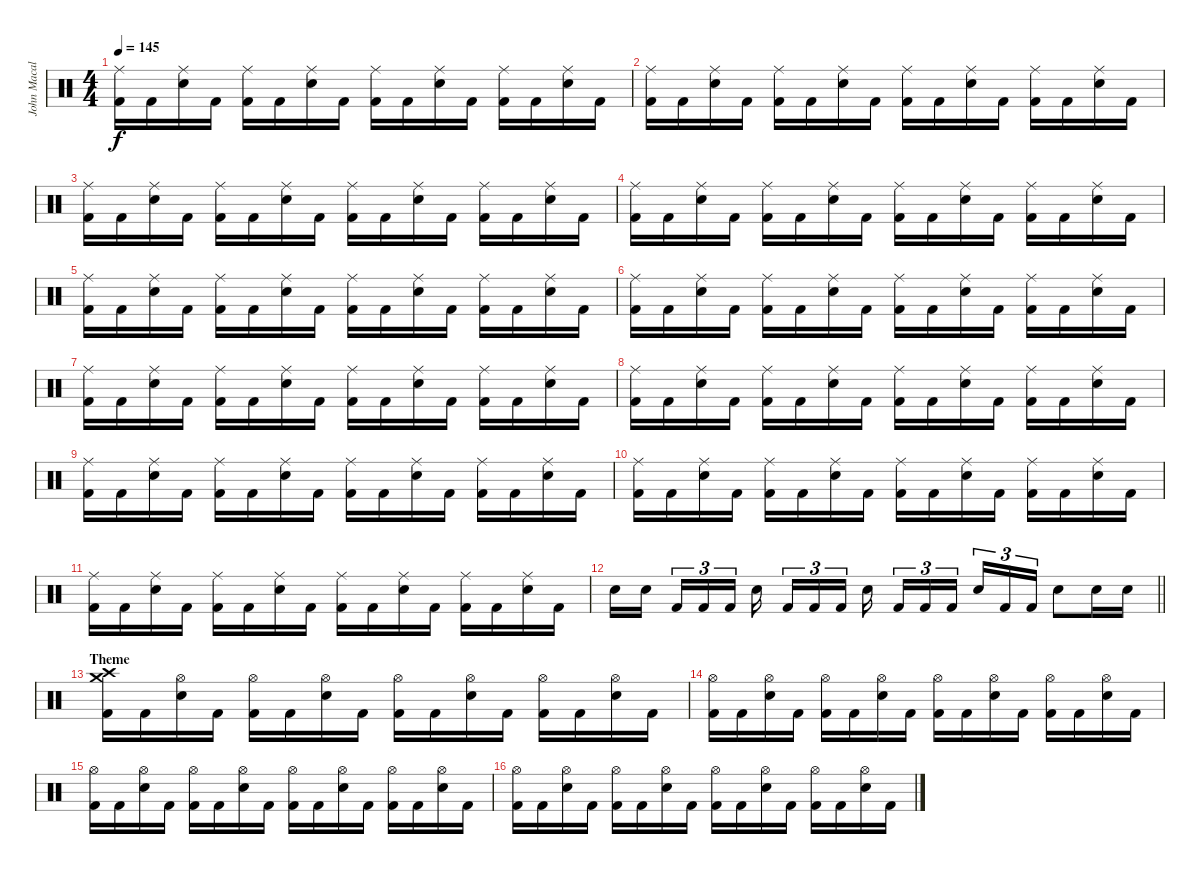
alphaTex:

\track ("John Macaluso" "John Macal") {instrument percussion}
\staff {score}
\articulation defaults
\ts (4 4)
\tempo 145
\clef neutral
\ks c
("Ride (middle)" "Kick (hit) 2").16{dy f} "Kick (hit) 2".16 ("Ride (middle)" "Snare (hit) 2").16 "Kick (hit) 2".16 ("Ride (middle)" "Kick (hit) 2").16 "Kick (hit) 2".16 ("Ride (middle)" "Snare (hit) 2").16 "Kick (hit) 2".16 ("Ride (middle)" "Kick (hit) 2").16 "Kick (hit) 2".16 ("Ride (middle)" "Snare (hit) 2").16 "Kick (hit) 2".16 ("Ride (middle)" "Kick (hit) 2").16 "Kick (hit) 2".16 ("Ride (middle)" "Snare (hit) 2").16 "Kick (hit) 2".16 |
("Ride (middle)" "Kick (hit) 2").16 "Kick (hit) 2".16 ("Ride (middle)" "Snare (hit) 2").16 "Kick (hit) 2".16 ("Ride (middle)" "Kick (hit) 2").16 "Kick (hit) 2".16 ("Ride (middle)" "Snare (hit) 2").16 "Kick (hit) 2".16 ("Ride (middle)" "Kick (hit) 2").16 "Kick (hit) 2".16 ("Ride (middle)" "Snare (hit) 2").16 "Kick (hit) 2".16 ("Ride (middle)" "Kick (hit) 2").16 "Kick (hit) 2".16 ("Ride (middle)" "Snare (hit) 2").16 "Kick (hit) 2".16 |
("Ride (middle)" "Kick (hit) 2").16 "Kick (hit) 2".16 ("Ride (middle)" "Snare (hit) 2").16 "Kick (hit) 2".16 ("Ride (middle)" "Kick (hit) 2").16 "Kick (hit) 2".16 ("Ride (middle)" "Snare (hit) 2").16 "Kick (hit) 2".16 ("Ride (middle)" "Kick (hit) 2").16 "Kick (hit) 2".16 ("Ride (middle)" "Snare (hit) 2").16 "Kick (hit) 2".16 ("Ride (middle)" "Kick (hit) 2").16 "Kick (hit) 2".16 ("Ride (middle)" "Snare (hit) 2").16 "Kick (hit) 2".16 |
("Ride (middle)" "Kick (hit) 2").16 "Kick (hit) 2".16 ("Ride (middle)" "Snare (hit) 2").16 "Kick (hit) 2".16 ("Ride (middle)" "Kick (hit) 2").16 "Kick (hit) 2".16 ("Ride (middle)" "Snare (hit) 2").16 "Kick (hit) 2".16 ("Ride (middle)" "Kick (hit) 2").16 "Kick (hit) 2".16 ("Ride (middle)" "Snare (hit) 2").16 "Kick (hit) 2".16 ("Ride (middle)" "Kick (hit) 2").16 "Kick (hit) 2".16 ("Ride (middle)" "Snare (hit) 2").16 "Kick (hit) 2".16 |
("Ride (middle)" "Kick (hit) 2").16 "Kick (hit) 2".16 ("Ride (middle)" "Snare (hit) 2").16 "Kick (hit) 2".16 ("Ride (middle)" "Kick (hit) 2").16 "Kick (hit) 2".16 ("Ride (middle)" "Snare (hit) 2").16 "Kick (hit) 2".16 ("Ride (middle)" "Kick (hit) 2").16 "Kick (hit) 2".16 ("Ride (middle)" "Snare (hit) 2").16 "Kick (hit) 2".16 ("Ride (middle)" "Kick (hit) 2").16 "Kick (hit) 2".16 ("Ride (middle)" "Snare (hit) 2").16 "Kick (hit) 2".16 |
("Ride (middle)" "Kick (hit) 2").16 "Kick (hit) 2".16 ("Ride (middle)" "Snare (hit) 2").16 "Kick (hit) 2".16 ("Ride (middle)" "Kick (hit) 2").16 "Kick (hit) 2".16 ("Ride (middle)" "Snare (hit) 2").16 "Kick (hit) 2".16 ("Ride (middle)" "Kick (hit) 2").16 "Kick (hit) 2".16 ("Ride (middle)" "Snare (hit) 2").16 "Kick (hit) 2".16 ("Ride (middle)" "Kick (hit) 2").16 "Kick (hit) 2".16 ("Ride (middle)" "Snare (hit) 2").16 "Kick (hit) 2".16 |
("Ride (middle)" "Kick (hit) 2").16 "Kick (hit) 2".16 ("Ride (middle)" "Snare (hit) 2").16 "Kick (hit) 2".16 ("Ride (middle)" "Kick (hit) 2").16 "Kick (hit) 2".16 ("Ride (middle)" "Snare (hit) 2").16 "Kick (hit) 2".16 ("Ride (middle)" "Kick (hit) 2").16 "Kick (hit) 2".16 ("Ride (middle)" "Snare (hit) 2").16 "Kick (hit) 2".16 ("Ride (middle)" "Kick (hit) 2").16 "Kick (hit) 2".16 ("Ride (middle)" "Snare (hit) 2").16 "Kick (hit) 2".16 |
("Ride (middle)" "Kick (hit) 2").16 "Kick (hit) 2".16 ("Ride (middle)" "Snare (hit) 2").16 "Kick (hit) 2".16 ("Ride (middle)" "Kick (hit) 2").16 "Kick (hit) 2".16 ("Ride (middle)" "Snare (hit) 2").16 "Kick (hit) 2".16 ("Ride (middle)" "Kick (hit) 2").16 "Kick (hit) 2".16 ("Ride (middle)" "Snare (hit) 2").16 "Kick (hit) 2".16 ("Ride (middle)" "Kick (hit) 2").16 "Kick (hit) 2".16 ("Ride (middle)" "Snare (hit) 2").16 "Kick (hit) 2".16 |
("Ride (middle)" "Kick (hit) 2").16 "Kick (hit) 2".16 ("Ride (middle)" "Snare (hit) 2").16 "Kick (hit) 2".16 ("Ride (middle)" "Kick (hit) 2").16 "Kick (hit) 2".16 ("Ride (middle)" "Snare (hit) 2").16 "Kick (hit) 2".16 ("Ride (middle)" "Kick (hit) 2").16 "Kick (hit) 2".16 ("Ride (middle)" "Snare (hit) 2").16 "Kick (hit) 2".16 ("Ride (middle)" "Kick (hit) 2").16 "Kick (hit) 2".16 ("Ride (middle)" "Snare (hit) 2").16 "Kick (hit) 2".16 |
("Ride (middle)" "Kick (hit) 2").16 "Kick (hit) 2".16 ("Ride (middle)" "Snare (hit) 2").16 "Kick (hit) 2".16 ("Ride (middle)" "Kick (hit) 2").16 "Kick (hit) 2".16 ("Ride (middle)" "Snare (hit) 2").16 "Kick (hit) 2".16 ("Ride (middle)" "Kick (hit) 2").16 "Kick (hit) 2".16 ("Ride (middle)" "Snare (hit) 2").16 "Kick (hit) 2".16 ("Ride (middle)" "Kick (hit) 2").16 "Kick (hit) 2".16 ("Ride (middle)" "Snare (hit) 2").16 "Kick (hit) 2".16 |
("Ride (middle)" "Kick (hit) 2").16 "Kick (hit) 2".16 ("Ride (middle)" "Snare (hit) 2").16 "Kick (hit) 2".16 ("Ride (middle)" "Kick (hit) 2").16 "Kick (hit) 2".16 ("Ride (middle)" "Snare (hit) 2").16 "Kick (hit) 2".16 ("Ride (middle)" "Kick (hit) 2").16 "Kick (hit) 2".16 ("Ride (middle)" "Snare (hit) 2").16 "Kick (hit) 2".16 ("Ride (middle)" "Kick (hit) 2").16 "Kick (hit) 2".16 ("Ride (middle)" "Snare (hit) 2").16 "Kick (hit) 2".16 |
\barLineRight lightlight "Snare (hit) 2".16 "Snare (hit) 2".16{beam splitsecondary} "Kick (hit) 2".16{tu (3 2)} "Kick (hit) 2".16{tu (3 2)} "Kick (hit) 2".16{tu (3 2)} "Snare (hit) 2".16{beam splitsecondary} "Kick (hit) 2".16{tu (3 2)} "Kick (hit) 2".16{tu (3 2)} "Kick (hit) 2".16{tu (3 2) beam splitsecondary} "Snare (hit) 2".16 "Kick (hit) 2".16{tu (3 2)} "Kick (hit) 2".16{tu (3 2)} "Kick (hit) 2".16{tu (3 2) beam splitsecondary} "Snare (hit) 2".16{tu (3 2)} "Kick (hit) 2".16{tu (3 2)} "Kick (hit) 2".16{tu (3 2)} "Snare (hit) 2".8 "Snare (hit) 2".16 "Snare (hit) 2".16
|
\section ("" "Theme")
("Crash high (hit)" "Crash medium (hit)" "Kick (hit) 2").16 "Kick (hit) 2".16 ("Hi-Hat (open)" "Snare (hit) 2").16 "Kick (hit) 2".16 ("Hi-Hat (open)" "Kick (hit) 2").16 "Kick (hit) 2".16 ("Hi-Hat (open)" "Snare (hit) 2").16 "Kick (hit) 2".16 ("Hi-Hat (open)" "Kick (hit) 2").16 "Kick (hit) 2".16 ("Hi-Hat (open)" "Snare (hit) 2").16 "Kick (hit) 2".16 ("Hi-Hat (open)" "Kick (hit) 2").16 "Kick (hit) 2".16 ("Hi-Hat (open)" "Snare (hit) 2").16 "Kick (hit) 2".16 |
("Hi-Hat (open)" "Kick (hit) 2").16 "Kick (hit) 2".16 ("Hi-Hat (open)" "Snare (hit) 2").16 "Kick (hit) 2".16 ("Hi-Hat (open)" "Kick (hit) 2").16 "Kick (hit) 2".16 ("Hi-Hat (open)" "Snare (hit) 2").16 "Kick (hit) 2".16 ("Hi-Hat (open)" "Kick (hit) 2").16 "Kick (hit) 2".16 ("Hi-Hat (open)" "Snare (hit) 2").16 "Kick (hit) 2".16 ("Hi-Hat (open)" "Kick (hit) 2").16 "Kick (hit) 2".16 ("Hi-Hat (open)" "Snare (hit) 2").16 "Kick (hit) 2".16 |
("Hi-Hat (open)" "Kick (hit) 2").16 "Kick (hit) 2".16 ("Hi-Hat (open)" "Snare (hit) 2").16 "Kick (hit) 2".16 ("Hi-Hat (open)" "Kick (hit) 2").16 "Kick (hit) 2".16 ("Hi-Hat (open)" "Snare (hit) 2").16 "Kick (hit) 2".16 ("Hi-Hat (open)" "Kick (hit) 2").16 "Kick (hit) 2".16 ("Hi-Hat (open)" "Snare (hit) 2").16 "Kick (hit) 2".16 ("Hi-Hat (open)" "Kick (hit) 2").16 "Kick (hit) 2".16 ("Hi-Hat (open)" "Snare (hit) 2").16 "Kick (hit) 2".16 |
("Hi-Hat (open)" "Kick (hit) 2").16 "Kick (hit) 2".16 ("Hi-Hat (open)" "Snare (hit) 2").16 "Kick (hit) 2".16 ("Hi-Hat (open)" "Kick (hit) 2").16 "Kick (hit) 2".16 ("Hi-Hat (open)" "Snare (hit) 2").16 "Kick (hit) 2".16 ("Hi-Hat (open)" "Kick (hit) 2").16 "Kick (hit) 2".16 ("Hi-Hat (open)" "Snare (hit) 2").16 "Kick (hit) 2".16 ("Hi-Hat (open)" "Kick (hit) 2").16 "Kick (hit) 2".16 ("Hi-Hat (open)" "Snare (hit) 2").16 "Kick (hit) 2".16
